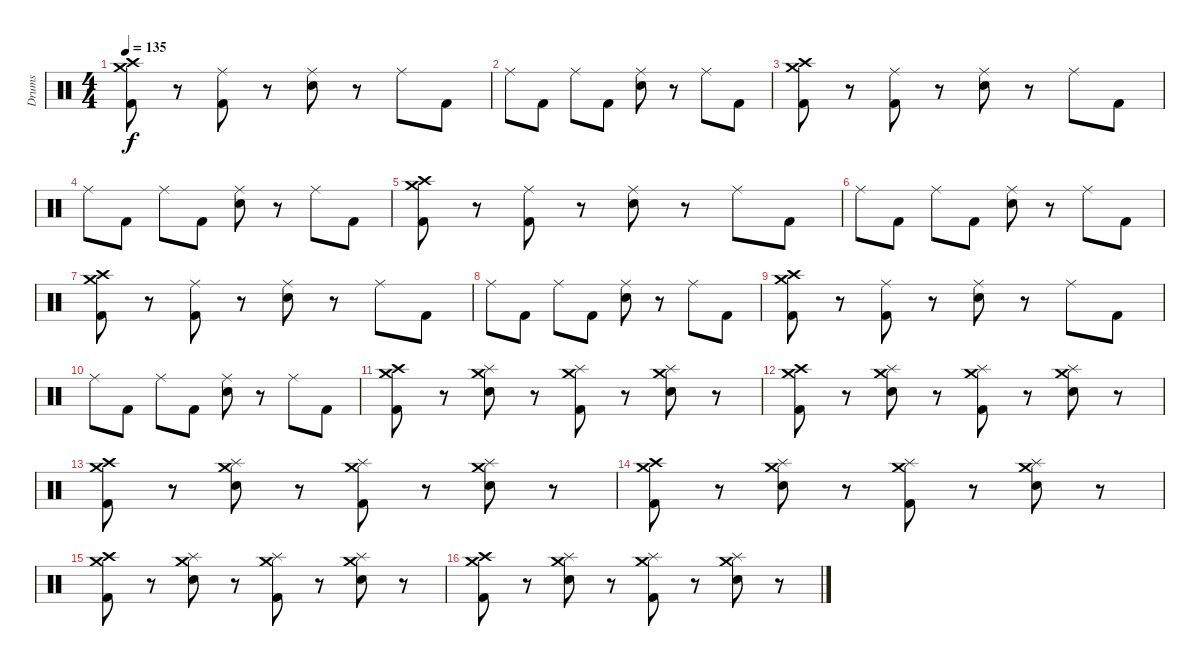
\track ("Drums" "Drums") {instrument percussion}
\staff {score}
\articulation defaults
\ts (4 4)
\tempo 135
\clef neutral
\ks c
("Crash medium (hit)" "Crash high (hit)" "Kick (hit) 2").8{dy f} r.8 ("Ride (middle)" "Kick (hit) 2").8 r.8 ("Ride (middle)" "Snare (hit) 2").8 r.8 "Ride (middle)".8 "Kick (hit) 2".8 |
"Ride (middle)".8 "Kick (hit) 2".8 "Ride (middle)".8 "Kick (hit) 2".8 ("Ride (middle)" "Snare (hit) 2").8 r.8 "Ride (middle)".8 "Kick (hit) 2".8 |
("Crash medium (hit)" "Crash high (hit)" "Kick (hit) 2").8 r.8 ("Ride (middle)" "Kick (hit) 2").8 r.8 ("Ride (middle)" "Snare (hit) 2").8 r.8 "Ride (middle)".8 "Kick (hit) 2".8 |
"Ride (middle)".8 "Kick (hit) 2".8 "Ride (middle)".8 "Kick (hit) 2".8 ("Ride (middle)" "Snare (hit) 2").8 r.8 "Ride (middle)".8 "Kick (hit) 2".8 |
("Crash medium (hit)" "Crash high (hit)" "Kick (hit) 2").8 r.8 ("Ride (middle)" "Kick (hit) 2").8 r.8 ("Ride (middle)" "Snare (hit) 2").8 r.8 "Ride (middle)".8 "Kick (hit) 2".8 |
"Ride (middle)".8 "Kick (hit) 2".8 "Ride (middle)".8 "Kick (hit) 2".8 ("Ride (middle)" "Snare (hit) 2").8 r.8 "Ride (middle)".8 "Kick (hit) 2".8 |
("Crash medium (hit)" "Crash high (hit)" "Kick (hit) 2").8 r.8 ("Ride (middle)" "Kick (hit) 2").8 r.8 ("Ride (middle)" "Snare (hit) 2").8 r.8 "Ride (middle)".8 "Kick (hit) 2".8 |
"Ride (middle)".8 "Kick (hit) 2".8 "Ride (middle)".8 "Kick (hit) 2".8 ("Ride (middle)" "Snare (hit) 2").8 r.8 "Ride (middle)".8 "Kick (hit) 2".8 |
("Crash medium (hit)" "Crash high (hit)" "Kick (hit) 2").8 r.8 ("Ride (middle)" "Kick (hit) 2").8 r.8 ("Ride (middle)" "Snare (hit) 2").8 r.8 "Ride (middle)".8 "Kick (hit) 2".8 |
"Ride (middle)".8 "Kick (hit) 2".8 "Ride (middle)".8 "Kick (hit) 2".8 ("Ride (middle)" "Snare (hit) 2").8 r.8 "Ride (middle)".8 "Kick (hit) 2".8 |
("Crash medium (hit)" "Crash high (hit)" "Kick (hit) 2").8 r.8 ("Splash (hit)" "Crash medium (hit)" "Snare (hit) 2").8 r.8 ("Splash (hit)" "Crash medium (hit)" "Kick (hit) 2").8 r.8 ("Splash (hit)" "Crash medium (hit)" "Snare (hit) 2").8 r.8 |
("Crash medium (hit)" "Crash high (hit)" "Kick (hit) 2").8 r.8 ("Splash (hit)" "Crash medium (hit)" "Snare (hit) 2").8 r.8 ("Splash (hit)" "Crash medium (hit)" "Kick (hit) 2").8 r.8 ("Splash (hit)" "Crash medium (hit)" "Snare (hit) 2").8 r.8 |
("Crash medium (hit)" "Crash high (hit)" "Kick (hit) 2").8 r.8 ("Splash (hit)" "Crash medium (hit)" "Snare (hit) 2").8 r.8 ("Splash (hit)" "Crash medium (hit)" "Kick (hit) 2").8 r.8 ("Splash (hit)" "Crash medium (hit)" "Snare (hit) 2").8 r.8 |
("Crash medium (hit)" "Crash high (hit)" "Kick (hit) 2").8 r.8 ("Splash (hit)" "Crash medium (hit)" "Snare (hit) 2").8 r.8 ("Splash (hit)" "Crash medium (hit)" "Kick (hit) 2").8 r.8 ("Splash (hit)" "Crash medium (hit)" "Snare (hit) 2").8 r.8 |
("Crash medium (hit)" "Crash high (hit)" "Kick (hit) 2").8 r.8 ("Splash (hit)" "Crash medium (hit)" "Snare (hit) 2").8 r.8 ("Splash (hit)" "Crash medium (hit)" "Kick (hit) 2").8 r.8 ("Splash (hit)" "Crash medium (hit)" "Snare (hit) 2").8 r.8 |
("Crash medium (hit)" "Crash high (hit)" "Kick (hit) 2").8 r.8 ("Splash (hit)" "Crash medium (hit)" "Snare (hit) 2").8 r.8 ("Splash (hit)" "Crash medium (hit)" "Kick (hit) 2").8 r.8 ("Splash (hit)" "Crash medium (hit)" "Snare (hit) 2").8 r.8
